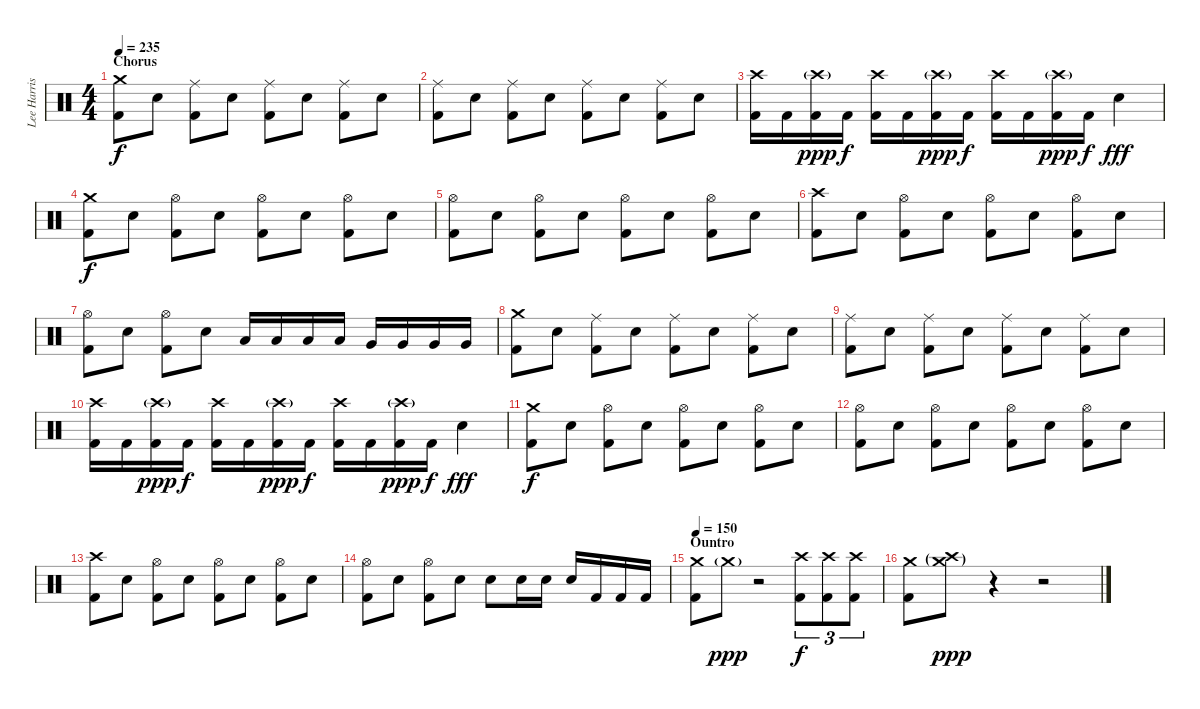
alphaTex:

\track ("Lee Harrison" "Lee Harris") {instrument percussion}
\staff {score}
\articulation defaults
\ts (4 4)
\section ("" "Chorus")
\tempo 235
\clef neutral
\ks c
("Crash medium (hit)" "Kick (hit) 2").8{dy f} "Electric Snare (hit)".8 ("Ride (middle)" "Kick (hit) 2").8 "Electric Snare (hit)".8 ("Ride (middle)" "Kick (hit) 2").8 "Electric Snare (hit)".8 ("Ride (middle)" "Kick (hit) 2").8 "Electric Snare (hit)".8 |
("Ride (middle)" "Kick (hit) 2").8 "Electric Snare (hit)".8 ("Ride (middle)" "Kick (hit) 2").8 "Electric Snare (hit)".8 ("Ride (middle)" "Kick (hit) 2").8 "Electric Snare (hit)".8 ("Ride (middle)" "Kick (hit) 2").8 "Electric Snare (hit)".8 |
("Crash high (hit)" "Kick (hit) 2").16 "Kick (hit) 2".16 ("Crash high (hit)"{g} "Kick (hit) 2").16{dy ppp} "Kick (hit) 2".16{dy f} ("Crash high (hit)" "Kick (hit) 2").16 "Kick (hit) 2".16 ("Crash high (hit)"{g} "Kick (hit) 2").16{dy ppp} "Kick (hit) 2".16{dy f} ("Crash high (hit)" "Kick (hit) 2").16 "Kick (hit) 2".16 ("Crash high (hit)"{g} "Kick (hit) 2").16{dy ppp} "Kick (hit) 2".16{dy f} "Electric Snare (hit)".4{dy fff} |
("Crash medium (hit)" "Kick (hit) 2").8{dy f} "Electric Snare (hit)".8 ("Hi-Hat (open)" "Kick (hit) 2").8 "Electric Snare (hit)".8 ("Hi-Hat (open)" "Kick (hit) 2").8 "Electric Snare (hit)".8 ("Hi-Hat (open)" "Kick (hit) 2").8 "Electric Snare (hit)".8 |
("Hi-Hat (open)" "Kick (hit) 2").8 "Electric Snare (hit)".8 ("Hi-Hat (open)" "Kick (hit) 2").8 "Electric Snare (hit)".8 ("Hi-Hat (open)" "Kick (hit) 2").8 "Electric Snare (hit)".8 ("Hi-Hat (open)" "Kick (hit) 2").8 "Electric Snare (hit)".8 |
("Crash high (hit)" "Kick (hit) 2").8 "Electric Snare (hit)".8 ("Hi-Hat (open)" "Kick (hit) 2").8 "Electric Snare (hit)".8 ("Hi-Hat (open)" "Kick (hit) 2").8 "Electric Snare (hit)".8 ("Hi-Hat (open)" "Kick (hit) 2").8 "Electric Snare (hit)".8 |
("Hi-Hat (open)" "Kick (hit) 2").8 "Electric Snare (hit)".8 ("Hi-Hat (open)" "Kick (hit) 2").8 "Electric Snare (hit)".8 "Low Tom (hit)".16 "Low Tom (hit)".16 "Low Tom (hit)".16 "Low Tom (hit)".16 "Very Low Tom (hit)".16 "Very Low Tom (hit)".16 "Very Low Tom (hit)".16 "Very Low Tom (hit)".16 |
("Crash medium (hit)" "Kick (hit) 2").8 "Electric Snare (hit)".8 ("Ride (middle)" "Kick (hit) 2").8 "Electric Snare (hit)".8 ("Ride (middle)" "Kick (hit) 2").8 "Electric Snare (hit)".8 ("Ride (middle)" "Kick (hit) 2").8 "Electric Snare (hit)".8 |
("Ride (middle)" "Kick (hit) 2").8 "Electric Snare (hit)".8 ("Ride (middle)" "Kick (hit) 2").8 "Electric Snare (hit)".8 ("Ride (middle)" "Kick (hit) 2").8 "Electric Snare (hit)".8 ("Ride (middle)" "Kick (hit) 2").8 "Electric Snare (hit)".8 |
("Crash high (hit)" "Kick (hit) 2").16 "Kick (hit) 2".16 ("Crash high (hit)"{g} "Kick (hit) 2").16{dy ppp} "Kick (hit) 2".16{dy f} ("Crash high (hit)" "Kick (hit) 2").16 "Kick (hit) 2".16 ("Crash high (hit)"{g} "Kick (hit) 2").16{dy ppp} "Kick (hit) 2".16{dy f} ("Crash high (hit)" "Kick (hit) 2").16 "Kick (hit) 2".16 ("Crash high (hit)"{g} "Kick (hit) 2").16{dy ppp} "Kick (hit) 2".16{dy f} "Electric Snare (hit)".4{dy fff} |
("Crash medium (hit)" "Kick (hit) 2").8{dy f} "Electric Snare (hit)".8 ("Hi-Hat (open)" "Kick (hit) 2").8 "Electric Snare (hit)".8 ("Hi-Hat (open)" "Kick (hit) 2").8 "Electric Snare (hit)".8 ("Hi-Hat (open)" "Kick (hit) 2").8 "Electric Snare (hit)".8 |
("Hi-Hat (open)" "Kick (hit) 2").8 "Electric Snare (hit)".8 ("Hi-Hat (open)" "Kick (hit) 2").8 "Electric Snare (hit)".8 ("Hi-Hat (open)" "Kick (hit) 2").8 "Electric Snare (hit)".8 ("Hi-Hat (open)" "Kick (hit) 2").8 "Electric Snare (hit)".8 |
("Crash high (hit)" "Kick (hit) 2").8 "Electric Snare (hit)".8 ("Hi-Hat (open)" "Kick (hit) 2").8 "Electric Snare (hit)".8 ("Hi-Hat (open)" "Kick (hit) 2").8 "Electric Snare (hit)".8 ("Hi-Hat (open)" "Kick (hit) 2").8 "Electric Snare (hit)".8 |
("Hi-Hat (open)" "Kick (hit) 2").8 "Electric Snare (hit)".8 ("Hi-Hat (open)" "Kick (hit) 2").8 "Electric Snare (hit)".8 "Electric Snare (hit)".8 "Electric Snare (hit)".16 "Electric Snare (hit)".16 "Electric Snare (hit)".16 "Kick (hit) 2".16 "Kick (hit) 2".16 "Kick (hit) 2".16 |
\section ("" "Ountro")
\tempo 150
("Crash medium (hit)" "Kick (hit) 2").8 "Crash medium (hit)"{g}.8{dy ppp} r.2 ("Crash high (hit)" "Kick (hit) 2").8{tu (3 2) dy f} ("Crash high (hit)" "Kick (hit) 2").8{tu (3 2)} ("Crash high (hit)" "Kick (hit) 2").8{tu (3 2)} |
("Crash medium (hit)" "Kick (hit) 2").8 ("Crash medium (hit)"{g} "Crash high (hit)"{g}).8{dy ppp} r.4 r.2
